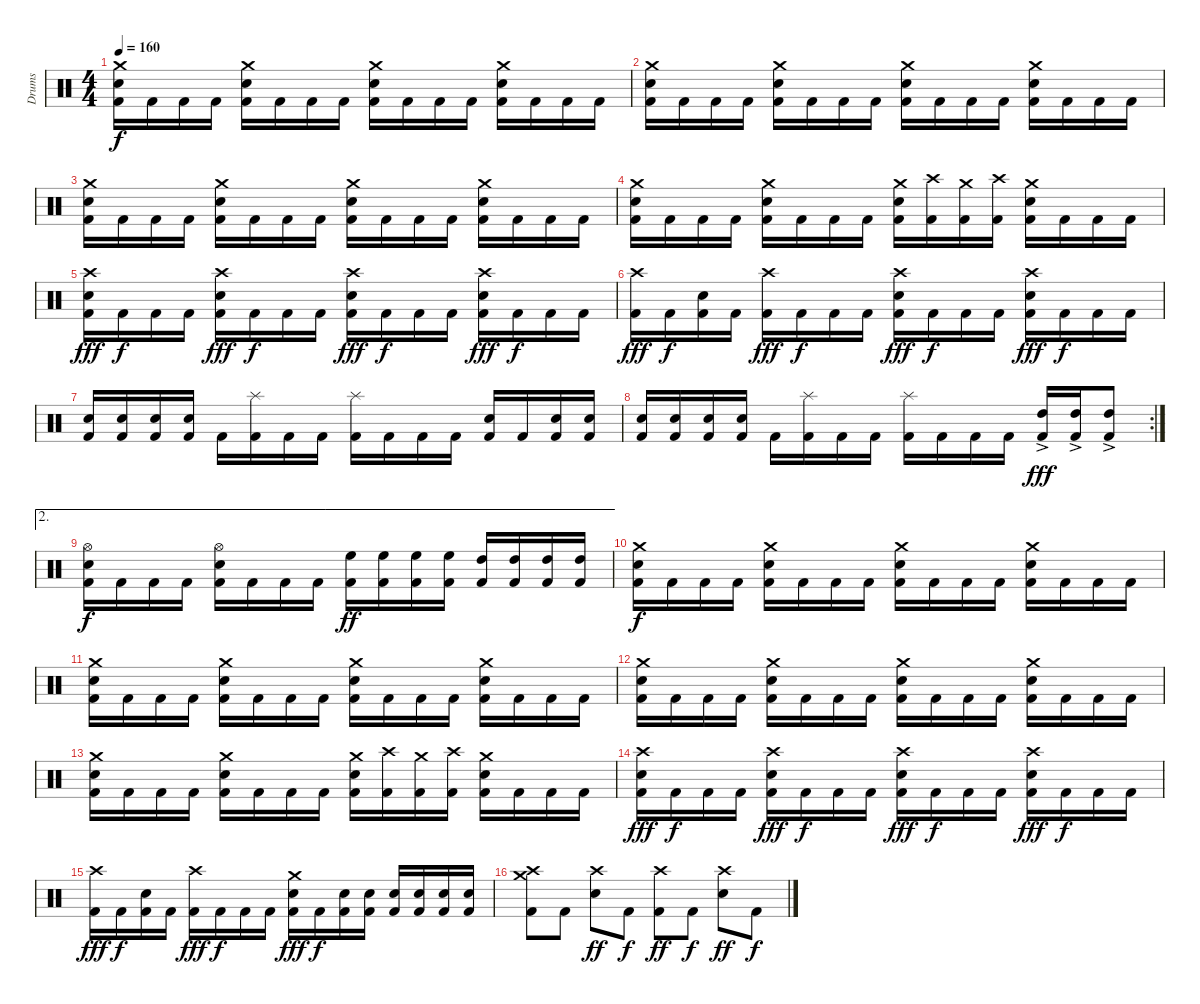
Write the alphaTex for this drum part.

\track ("Drums" "Drums") {instrument percussion}
\staff {score}
\articulation defaults
\ts (4 4)
\tempo 160
\clef neutral
\ks c
("Crash medium (hit)" "Snare (hit) 2" "Kick (hit) 2").16{dy f} "Kick (hit) 2".16 "Kick (hit) 2".16 "Kick (hit) 2".16 ("Crash medium (hit)" "Snare (hit) 2" "Kick (hit) 2").16 "Kick (hit) 2".16 "Kick (hit) 2".16 "Kick (hit) 2".16 ("Crash medium (hit)" "Snare (hit) 2" "Kick (hit) 2").16 "Kick (hit) 2".16 "Kick (hit) 2".16 "Kick (hit) 2".16 ("Crash medium (hit)" "Snare (hit) 2" "Kick (hit) 2").16 "Kick (hit) 2".16 "Kick (hit) 2".16 "Kick (hit) 2".16 |
("Crash medium (hit)" "Snare (hit) 2" "Kick (hit) 2").16 "Kick (hit) 2".16 "Kick (hit) 2".16 "Kick (hit) 2".16 ("Crash medium (hit)" "Snare (hit) 2" "Kick (hit) 2").16 "Kick (hit) 2".16 "Kick (hit) 2".16 "Kick (hit) 2".16 ("Crash medium (hit)" "Snare (hit) 2" "Kick (hit) 2").16 "Kick (hit) 2".16 "Kick (hit) 2".16 "Kick (hit) 2".16 ("Crash medium (hit)" "Snare (hit) 2" "Kick (hit) 2").16 "Kick (hit) 2".16 "Kick (hit) 2".16 "Kick (hit) 2".16 |
("Crash medium (hit)" "Snare (hit) 2" "Kick (hit) 2").16 "Kick (hit) 2".16 "Kick (hit) 2".16 "Kick (hit) 2".16 ("Crash medium (hit)" "Snare (hit) 2" "Kick (hit) 2").16 "Kick (hit) 2".16 "Kick (hit) 2".16 "Kick (hit) 2".16 ("Crash medium (hit)" "Snare (hit) 2" "Kick (hit) 2").16 "Kick (hit) 2".16 "Kick (hit) 2".16 "Kick (hit) 2".16 ("Crash medium (hit)" "Snare (hit) 2" "Kick (hit) 2").16 "Kick (hit) 2".16 "Kick (hit) 2".16 "Kick (hit) 2".16 |
("Crash medium (hit)" "Snare (hit) 2" "Kick (hit) 2").16 "Kick (hit) 2".16 "Kick (hit) 2".16 "Kick (hit) 2".16 ("Crash medium (hit)" "Snare (hit) 2" "Kick (hit) 2").16 "Kick (hit) 2".16 "Kick (hit) 2".16 "Kick (hit) 2".16 ("Crash medium (hit)" "Snare (hit) 2" "Kick (hit) 2").16 ("Crash high (hit)" "Kick (hit) 2").16 ("Crash medium (hit)" "Kick (hit) 2").16 ("Crash high (hit)" "Kick (hit) 2").16 ("Crash medium (hit)" "Snare (hit) 2" "Kick (hit) 2").16 "Kick (hit) 2".16 "Kick (hit) 2".16 "Kick (hit) 2".16 |
("Crash high (hit)" "Snare (hit) 2" "Kick (hit) 2").16{dy fff} "Kick (hit) 2".16{dy f} "Kick (hit) 2".16 "Kick (hit) 2".16 ("Crash high (hit)" "Snare (hit) 2" "Kick (hit) 2").16{dy fff} "Kick (hit) 2".16{dy f} "Kick (hit) 2".16 "Kick (hit) 2".16 ("Crash high (hit)" "Snare (hit) 2" "Kick (hit) 2").16{dy fff} "Kick (hit) 2".16{dy f} "Kick (hit) 2".16 "Kick (hit) 2".16 ("Crash high (hit)" "Snare (hit) 2" "Kick (hit) 2").16{dy fff} "Kick (hit) 2".16{dy f} "Kick (hit) 2".16 "Kick (hit) 2".16 |
("Crash high (hit)" "Kick (hit) 2").16{dy fff} "Kick (hit) 2".16{dy f} ("Snare (hit) 2" "Kick (hit) 2").16 "Kick (hit) 2".16 ("Crash high (hit)" "Kick (hit) 2").16{dy fff} "Kick (hit) 2".16{dy f} "Kick (hit) 2".16 "Kick (hit) 2".16 ("Crash high (hit)" "Snare (hit) 2" "Kick (hit) 2").16{dy fff} "Kick (hit) 2".16{dy f} "Kick (hit) 2".16 "Kick (hit) 2".16 ("Crash high (hit)" "Snare (hit) 2" "Kick (hit) 2").16{dy fff} "Kick (hit) 2".16{dy f} "Kick (hit) 2".16 "Kick (hit) 2".16 |
("Snare (hit) 2" "Kick (hit) 2").16 ("Snare (hit) 2" "Kick (hit) 2").16 ("Snare (hit) 2" "Kick (hit) 2").16 ("Snare (hit) 2" "Kick (hit) 2").16 "Kick (hit) 2".16 ("Splash (hit)" "Kick (hit) 2").16 "Kick (hit) 2".16 "Kick (hit) 2".16 ("Splash (hit)" "Kick (hit) 2").16 "Kick (hit) 2".16 "Kick (hit) 2".16 "Kick (hit) 2".16 ("Snare (hit) 2" "Kick (hit) 2").16 "Kick (hit) 2".16 ("Snare (hit) 2" "Kick (hit) 2").16 ("Snare (hit) 2" "Kick (hit) 2").16 |
\rc 2
("Snare (hit) 2" "Kick (hit) 2").16 ("Snare (hit) 2" "Kick (hit) 2").16 ("Snare (hit) 2" "Kick (hit) 2").16 ("Snare (hit) 2" "Kick (hit) 2").16 "Kick (hit) 2".16 ("Splash (hit)" "Kick (hit) 2").16 "Kick (hit) 2".16 "Kick (hit) 2".16 ("Splash (hit)" "Kick (hit) 2").16 "Kick (hit) 2".16 "Kick (hit) 2".16 "Kick (hit) 2".16 ("High Tom (hit)"{ac} "Kick (hit) 2").16{dy fff} ("High Tom (hit)"{ac} "Kick (hit) 2").16 ("High Tom (hit)"{ac} "Kick (hit) 2").8 |
\ae 2
("Hi-Hat (open)" "Snare (hit) 2" "Kick (hit) 2").16{dy f} "Kick (hit) 2".16 "Kick (hit) 2".16 "Kick (hit) 2".16 ("Hi-Hat (open)" "Snare (hit) 2" "Kick (hit) 2").16 "Kick (hit) 2".16 "Kick (hit) 2".16 "Kick (hit) 2".16 ("High Floor Tom (hit)" "Kick (hit) 2").16{dy ff} ("High Floor Tom (hit)" "Kick (hit) 2").16 ("High Floor Tom (hit)" "Kick (hit) 2").16 ("High Floor Tom (hit)" "Kick (hit) 2").16 ("High Tom (hit)" "Kick (hit) 2").16 ("High Tom (hit)" "Kick (hit) 2").16 ("High Tom (hit)" "Kick (hit) 2").16 ("High Tom (hit)" "Kick (hit) 2").16 |
("Crash medium (hit)" "Snare (hit) 2" "Kick (hit) 2").16{dy f} "Kick (hit) 2".16 "Kick (hit) 2".16 "Kick (hit) 2".16 ("Crash medium (hit)" "Snare (hit) 2" "Kick (hit) 2").16 "Kick (hit) 2".16 "Kick (hit) 2".16 "Kick (hit) 2".16 ("Crash medium (hit)" "Snare (hit) 2" "Kick (hit) 2").16 "Kick (hit) 2".16 "Kick (hit) 2".16 "Kick (hit) 2".16 ("Crash medium (hit)" "Snare (hit) 2" "Kick (hit) 2").16 "Kick (hit) 2".16 "Kick (hit) 2".16 "Kick (hit) 2".16 |
("Crash medium (hit)" "Snare (hit) 2" "Kick (hit) 2").16 "Kick (hit) 2".16 "Kick (hit) 2".16 "Kick (hit) 2".16 ("Crash medium (hit)" "Snare (hit) 2" "Kick (hit) 2").16 "Kick (hit) 2".16 "Kick (hit) 2".16 "Kick (hit) 2".16 ("Crash medium (hit)" "Snare (hit) 2" "Kick (hit) 2").16 "Kick (hit) 2".16 "Kick (hit) 2".16 "Kick (hit) 2".16 ("Crash medium (hit)" "Snare (hit) 2" "Kick (hit) 2").16 "Kick (hit) 2".16 "Kick (hit) 2".16 "Kick (hit) 2".16 |
("Crash medium (hit)" "Snare (hit) 2" "Kick (hit) 2").16 "Kick (hit) 2".16 "Kick (hit) 2".16 "Kick (hit) 2".16 ("Crash medium (hit)" "Snare (hit) 2" "Kick (hit) 2").16 "Kick (hit) 2".16 "Kick (hit) 2".16 "Kick (hit) 2".16 ("Crash medium (hit)" "Snare (hit) 2" "Kick (hit) 2").16 "Kick (hit) 2".16 "Kick (hit) 2".16 "Kick (hit) 2".16 ("Crash medium (hit)" "Snare (hit) 2" "Kick (hit) 2").16 "Kick (hit) 2".16 "Kick (hit) 2".16 "Kick (hit) 2".16 |
("Crash medium (hit)" "Snare (hit) 2" "Kick (hit) 2").16 "Kick (hit) 2".16 "Kick (hit) 2".16 "Kick (hit) 2".16 ("Crash medium (hit)" "Snare (hit) 2" "Kick (hit) 2").16 "Kick (hit) 2".16 "Kick (hit) 2".16 "Kick (hit) 2".16 ("Crash medium (hit)" "Snare (hit) 2" "Kick (hit) 2").16 ("Crash high (hit)" "Kick (hit) 2").16 ("Crash medium (hit)" "Kick (hit) 2").16 ("Crash high (hit)" "Kick (hit) 2").16 ("Crash medium (hit)" "Snare (hit) 2" "Kick (hit) 2").16 "Kick (hit) 2".16 "Kick (hit) 2".16 "Kick (hit) 2".16 |
("Crash high (hit)" "Snare (hit) 2" "Kick (hit) 2").16{dy fff} "Kick (hit) 2".16{dy f} "Kick (hit) 2".16 "Kick (hit) 2".16 ("Crash high (hit)" "Snare (hit) 2" "Kick (hit) 2").16{dy fff} "Kick (hit) 2".16{dy f} "Kick (hit) 2".16 "Kick (hit) 2".16 ("Crash high (hit)" "Snare (hit) 2" "Kick (hit) 2").16{dy fff} "Kick (hit) 2".16{dy f} "Kick (hit) 2".16 "Kick (hit) 2".16 ("Crash high (hit)" "Snare (hit) 2" "Kick (hit) 2").16{dy fff} "Kick (hit) 2".16{dy f} "Kick (hit) 2".16 "Kick (hit) 2".16 |
("Crash high (hit)" "Kick (hit) 2").16{dy fff} "Kick (hit) 2".16{dy f} ("Snare (hit) 2" "Kick (hit) 2").16 "Kick (hit) 2".16 ("Crash high (hit)" "Kick (hit) 2").16{dy fff} "Kick (hit) 2".16{dy f} "Kick (hit) 2".16 "Kick (hit) 2".16 ("Crash medium (hit)" "Snare (hit) 2" "Kick (hit) 2").16{dy fff} "Kick (hit) 2".16{dy f} ("Snare (hit) 2" "Kick (hit) 2").16 ("Snare (hit) 2" "Kick (hit) 2").16 ("Snare (hit) 2" "Kick (hit) 2").16 ("Snare (hit) 2" "Kick (hit) 2").16 ("Snare (hit) 2" "Kick (hit) 2").16 ("Snare (hit) 2" "Kick (hit) 2").16 |
("Crash high (hit)" "Crash medium (hit)" "Kick (hit) 2").8 "Kick (hit) 2".8 ("Crash high (hit)" "Snare (hit) 2").8{dy ff} "Kick (hit) 2".8{dy f} ("Crash high (hit)" "Kick (hit) 2").8{dy ff} "Kick (hit) 2".8{dy f} ("Crash high (hit)" "Snare (hit) 2").8{dy ff} "Kick (hit) 2".8{dy f}
